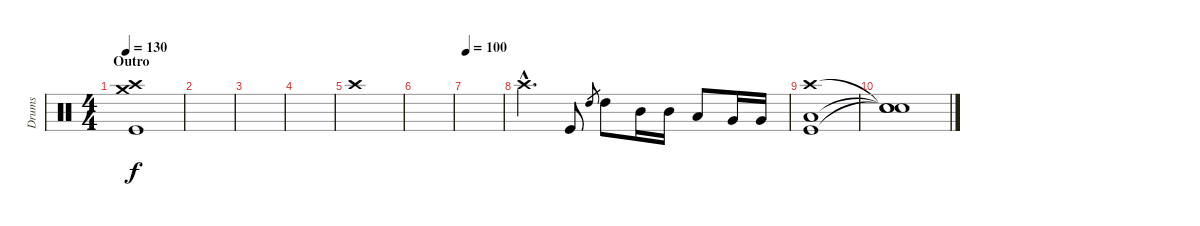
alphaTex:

\track ("Drums" "Drums") {instrument percussion}
\staff {score}
\articulation defaults
\ts (4 4)
\section ("" "Outro")
\tempo 130
\clef neutral
\ks c
("Crash high (hit)" "Crash medium (hit)" "Kick (hit)").1{dy f} |
|
|
|
"Crash high (hit)".1 |
|
\tempo 100
|
"Crash high (hit)"{hac}.4{d} "Kick (hit)".8 "High Tom (hit)".8{gr} "High Tom (hit)".8 "Mid Tom (hit)".16 "Mid Tom (hit)".16 "Low Tom (hit)".8 "Very Low Tom (hit)".16 "Very Low Tom (hit)".16 |
("Crash high (hit)" "Low Floor Tom (hit)" "Kick (hit)").1 |
("Snare (hit)"{t} "Snare (hit)"{t} "Snare (hit)"{t}).1
